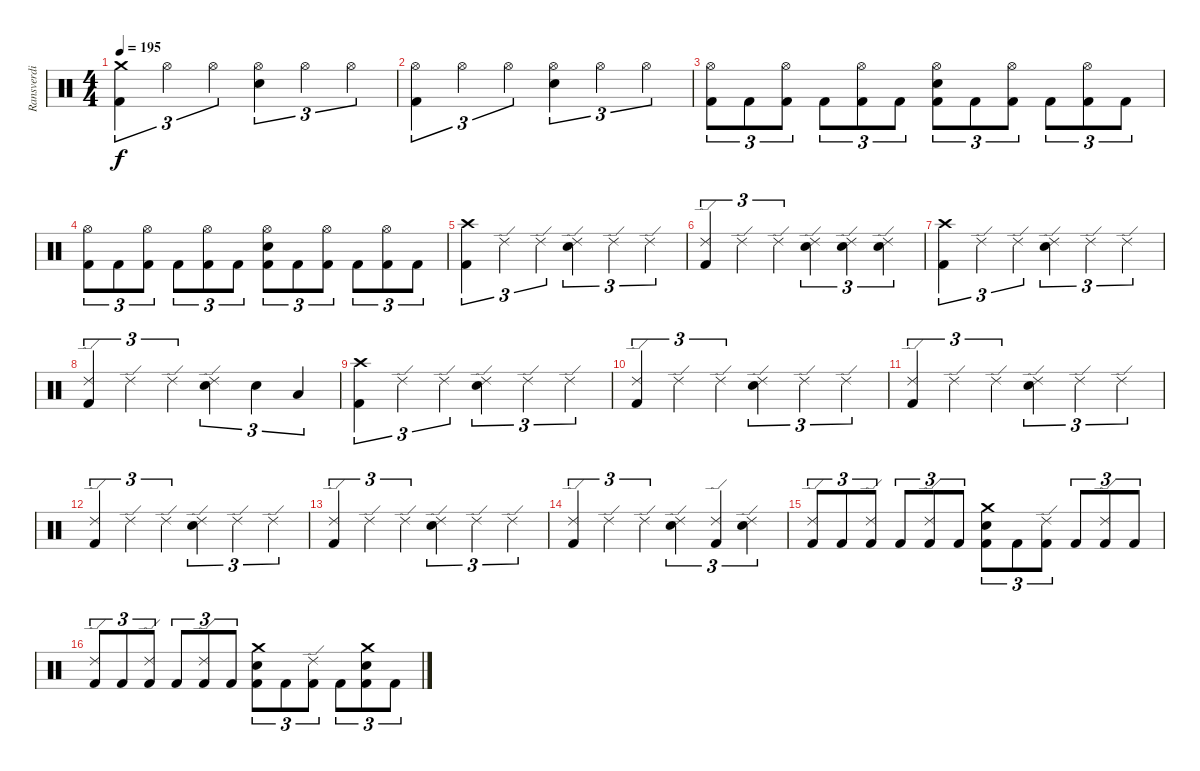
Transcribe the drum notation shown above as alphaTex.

\track ("Ransverdi" "Ransverdi") {instrument percussion}
\staff {score}
\articulation defaults
\ts (4 4)
\tempo 195
\clef neutral
\ks c
("Crash medium (hit)" "Kick (hit) 2").4{tu (3 2) dy f} "Hi-Hat (open)".4{tu (3 2)} "Hi-Hat (open)".4{tu (3 2)} ("Hi-Hat (open)" "Snare (hit) 2").4{tu (3 2)} "Hi-Hat (open)".4{tu (3 2)} "Hi-Hat (open)".4{tu (3 2)} |
("Hi-Hat (open)" "Kick (hit) 2").4{tu (3 2)} "Hi-Hat (open)".4{tu (3 2)} "Hi-Hat (open)".4{tu (3 2)} ("Hi-Hat (open)" "Snare (hit) 2").4{tu (3 2)} "Hi-Hat (open)".4{tu (3 2)} "Hi-Hat (open)".4{tu (3 2)} |
("Hi-Hat (open)" "Kick (hit) 2").8{tu (3 2)} "Kick (hit) 2".8{tu (3 2)} ("Hi-Hat (open)" "Kick (hit) 2").8{tu (3 2)} "Kick (hit) 2".8{tu (3 2)} ("Hi-Hat (open)" "Kick (hit) 2").8{tu (3 2)} "Kick (hit) 2".8{tu (3 2)} ("Hi-Hat (open)" "Snare (hit) 2" "Kick (hit) 2").8{tu (3 2)} "Kick (hit) 2".8{tu (3 2)} ("Hi-Hat (open)" "Kick (hit) 2").8{tu (3 2)} "Kick (hit) 2".8{tu (3 2)} ("Hi-Hat (open)" "Kick (hit) 2").8{tu (3 2)} "Kick (hit) 2".8{tu (3 2)} |
("Hi-Hat (open)" "Kick (hit) 2").8{tu (3 2)} "Kick (hit) 2".8{tu (3 2)} ("Hi-Hat (open)" "Kick (hit) 2").8{tu (3 2)} "Kick (hit) 2".8{tu (3 2)} ("Hi-Hat (open)" "Kick (hit) 2").8{tu (3 2)} "Kick (hit) 2".8{tu (3 2)} ("Hi-Hat (open)" "Snare (hit) 2" "Kick (hit) 2").8{tu (3 2)} "Kick (hit) 2".8{tu (3 2)} ("Hi-Hat (open)" "Kick (hit) 2").8{tu (3 2)} "Kick (hit) 2".8{tu (3 2)} ("Hi-Hat (open)" "Kick (hit) 2").8{tu (3 2)} "Kick (hit) 2".8{tu (3 2)} |
("Crash high (hit)" "Kick (hit) 2").4{tu (3 2)} "Ride (edge) 2".4{tu (3 2)} "Ride (edge) 2".4{tu (3 2)} ("Ride (edge) 2" "Snare (hit) 2").4{tu (3 2)} "Ride (edge) 2".4{tu (3 2)} "Ride (edge) 2".4{tu (3 2)} |
("Ride (edge) 2" "Kick (hit) 2").4{tu (3 2)} "Ride (edge) 2".4{tu (3 2)} "Ride (edge) 2".4{tu (3 2)} ("Ride (edge) 2" "Snare (hit) 2").4{tu (3 2)} ("Ride (edge) 2" "Snare (hit) 2").4{tu (3 2)} ("Ride (edge) 2" "Snare (hit) 2").4{tu (3 2)} |
("Crash high (hit)" "Kick (hit) 2").4{tu (3 2)} "Ride (edge) 2".4{tu (3 2)} "Ride (edge) 2".4{tu (3 2)} ("Ride (edge) 2" "Snare (hit) 2").4{tu (3 2)} "Ride (edge) 2".4{tu (3 2)} "Ride (edge) 2".4{tu (3 2)} |
("Ride (edge) 2" "Kick (hit) 2").4{tu (3 2)} "Ride (edge) 2".4{tu (3 2)} "Ride (edge) 2".4{tu (3 2)} ("Ride (edge) 2" "Snare (hit) 2").4{tu (3 2)} "Snare (hit) 2".4{tu (3 2)} "Low Tom (hit)".4{tu (3 2)} |
("Crash high (hit)" "Kick (hit) 2").4{tu (3 2)} "Ride (edge) 2".4{tu (3 2)} "Ride (edge) 2".4{tu (3 2)} ("Ride (edge) 2" "Snare (hit) 2").4{tu (3 2)} "Ride (edge) 2".4{tu (3 2)} "Ride (edge) 2".4{tu (3 2)} |
("Ride (edge) 2" "Kick (hit) 2").4{tu (3 2)} "Ride (edge) 2".4{tu (3 2)} "Ride (edge) 2".4{tu (3 2)} ("Ride (edge) 2" "Snare (hit) 2").4{tu (3 2)} "Ride (edge) 2".4{tu (3 2)} "Ride (edge) 2".4{tu (3 2)} |
("Ride (edge) 2" "Kick (hit) 2").4{tu (3 2)} "Ride (edge) 2".4{tu (3 2)} "Ride (edge) 2".4{tu (3 2)} ("Ride (edge) 2" "Snare (hit) 2").4{tu (3 2)} "Ride (edge) 2".4{tu (3 2)} "Ride (edge) 2".4{tu (3 2)} |
("Ride (edge) 2" "Kick (hit) 2").4{tu (3 2)} "Ride (edge) 2".4{tu (3 2)} "Ride (edge) 2".4{tu (3 2)} ("Ride (edge) 2" "Snare (hit) 2").4{tu (3 2)} "Ride (edge) 2".4{tu (3 2)} "Ride (edge) 2".4{tu (3 2)} |
("Ride (edge) 2" "Kick (hit) 2").4{tu (3 2)} "Ride (edge) 2".4{tu (3 2)} "Ride (edge) 2".4{tu (3 2)} ("Ride (edge) 2" "Snare (hit) 2").4{tu (3 2)} "Ride (edge) 2".4{tu (3 2)} "Ride (edge) 2".4{tu (3 2)} |
("Ride (edge) 2" "Kick (hit) 2").4{tu (3 2)} "Ride (edge) 2".4{tu (3 2)} "Ride (edge) 2".4{tu (3 2)} ("Ride (edge) 2" "Snare (hit) 2").4{tu (3 2)} ("Ride (edge) 2" "Kick (hit) 2").4{tu (3 2)} ("Ride (edge) 2" "Snare (hit) 2").4{tu (3 2)} |
("Ride (edge) 2" "Kick (hit) 2").8{tu (3 2)} "Kick (hit) 2".8{tu (3 2)} ("Ride (edge) 2" "Kick (hit) 2").8{tu (3 2)} "Kick (hit) 2".8{tu (3 2)} ("Ride (edge) 2" "Kick (hit) 2").8{tu (3 2)} "Kick (hit) 2".8{tu (3 2)} ("Crash medium (hit)" "Snare (hit) 2" "Kick (hit) 2").8{tu (3 2)} "Kick (hit) 2".8{tu (3 2)} ("Ride (edge) 2" "Kick (hit) 2").8{tu (3 2)} "Kick (hit) 2".8{tu (3 2)} ("Ride (edge) 2" "Kick (hit) 2").8{tu (3 2)} "Kick (hit) 2".8{tu (3 2)} |
("Ride (edge) 2" "Kick (hit) 2").8{tu (3 2)} "Kick (hit) 2".8{tu (3 2)} ("Ride (edge) 2" "Kick (hit) 2").8{tu (3 2)} "Kick (hit) 2".8{tu (3 2)} ("Ride (edge) 2" "Kick (hit) 2").8{tu (3 2)} "Kick (hit) 2".8{tu (3 2)} ("Crash medium (hit)" "Snare (hit) 2" "Kick (hit) 2").8{tu (3 2)} "Kick (hit) 2".8{tu (3 2)} ("Ride (edge) 2" "Kick (hit) 2").8{tu (3 2)} "Kick (hit) 2".8{tu (3 2)} ("Crash medium (hit)" "Snare (hit) 2" "Kick (hit) 2").8{tu (3 2)} "Kick (hit) 2".8{tu (3 2)}
